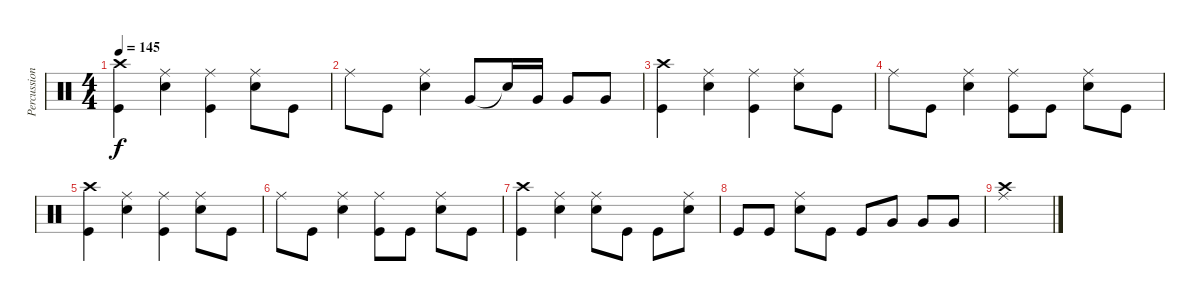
\track ("Percussion" "Percussion") {instrument percussion}
\staff {score}
\articulation defaults
\ts (4 4)
\tempo 145
\clef neutral
\ks c
("Kick (hit)" "Crash high (hit)").4{dy f} ("Ride (middle)" "Snare (hit) 2").4 ("Kick (hit)" "Ride (middle)").4 ("Ride (middle)" "Snare (hit) 2").8 "Kick (hit)".8 |
"Ride (middle)".8 "Kick (hit)".8 ("Ride (middle)" "Snare (hit) 2").4 "Very Low Tom (hit)".8 "Snare (hit)"{t}.16 "Very Low Tom (hit)".16 "Very Low Tom (hit)".8 "Very Low Tom (hit)".8 |
("Kick (hit)" "Crash high (hit)").4 ("Ride (middle)" "Snare (hit) 2").4 ("Kick (hit)" "Ride (middle)").4 ("Ride (middle)" "Snare (hit) 2").8 "Kick (hit)".8 |
"Ride (middle)".8 "Kick (hit)".8 ("Ride (middle)" "Snare (hit) 2").4 ("Kick (hit)" "Ride (middle)").8 "Kick (hit)".8 ("Ride (middle)" "Snare (hit) 2").8 "Kick (hit)".8 |
("Kick (hit)" "Crash high (hit)").4 ("Ride (middle)" "Snare (hit) 2").4 ("Kick (hit)" "Ride (middle)").4 ("Ride (middle)" "Snare (hit) 2").8 "Kick (hit)".8 |
"Ride (middle)".8 "Kick (hit)".8 ("Ride (middle)" "Snare (hit) 2").4 ("Kick (hit)" "Ride (middle)").8 "Kick (hit)".8 ("Ride (middle)" "Snare (hit) 2").8 "Kick (hit)".8 |
("Kick (hit)" "Crash high (hit)").4 ("Ride (middle)" "Snare (hit) 2").4 ("Ride (middle)" "Snare (hit) 2").8 "Kick (hit)".8 "Kick (hit)".8 ("Ride (middle)" "Snare (hit) 2").8 |
"Kick (hit)".8 "Kick (hit)".8 ("Ride (middle)" "Snare (hit) 2").8 "Kick (hit)".8 "Kick (hit)".8 "Very Low Tom (hit)".8 "Very Low Tom (hit)".8 "Very Low Tom (hit)".8 |
("Ride (middle)" "Crash high (hit)").1
